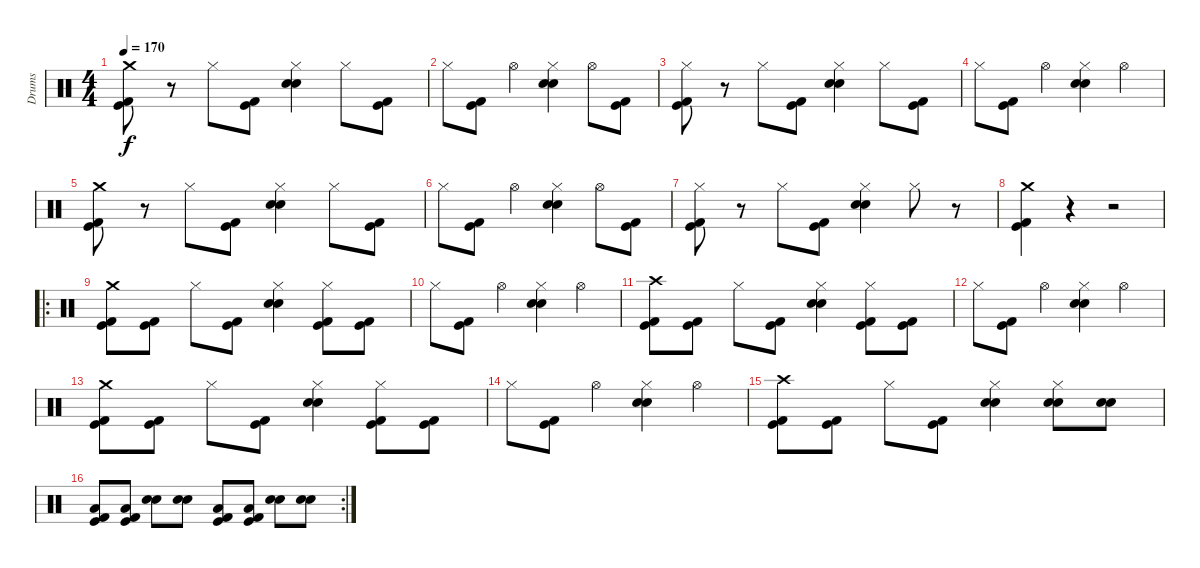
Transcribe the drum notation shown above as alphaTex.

\track ("Drums" "Drums") {instrument percussion}
\staff {score}
\articulation defaults
\ts (4 4)
\tempo 170
\clef neutral
\ks c
("Crash medium (hit)" "Kick (hit) 2" "Kick (hit)").8{dy f} r.8 "Hi-Hat (closed)".8 ("Kick (hit) 2" "Kick (hit)").8 ("Hi-Hat (closed)" "Electric Snare (hit)" "Snare (hit) 2").4 "Hi-Hat (closed)".8 ("Kick (hit) 2" "Kick (hit)").8 |
"Hi-Hat (closed)".8 ("Kick (hit) 2" "Kick (hit)").8 "Hi-Hat (open)".4 ("Hi-Hat (closed)" "Electric Snare (hit)" "Snare (hit) 2").4 "Hi-Hat (open)".8 ("Kick (hit) 2" "Kick (hit)").8 |
("Hi-Hat (closed)" "Kick (hit) 2" "Kick (hit)").8 r.8 "Hi-Hat (closed)".8 ("Kick (hit) 2" "Kick (hit)").8 ("Hi-Hat (closed)" "Electric Snare (hit)" "Snare (hit) 2").4 "Hi-Hat (closed)".8 ("Kick (hit) 2" "Kick (hit)").8 |
"Hi-Hat (closed)".8 ("Kick (hit) 2" "Kick (hit)").8 "Hi-Hat (open)".4 ("Hi-Hat (closed)" "Electric Snare (hit)" "Snare (hit) 2").4 "Hi-Hat (open)".4 |
("Crash medium (hit)" "Kick (hit) 2" "Kick (hit)").8 r.8 "Hi-Hat (closed)".8 ("Kick (hit) 2" "Kick (hit)").8 ("Hi-Hat (closed)" "Electric Snare (hit)" "Snare (hit) 2").4 "Hi-Hat (closed)".8 ("Kick (hit) 2" "Kick (hit)").8 |
"Hi-Hat (closed)".8 ("Kick (hit) 2" "Kick (hit)").8 "Hi-Hat (open)".4 ("Hi-Hat (closed)" "Electric Snare (hit)" "Snare (hit) 2").4 "Hi-Hat (open)".8 ("Kick (hit) 2" "Kick (hit)").8 |
("Hi-Hat (closed)" "Kick (hit) 2" "Kick (hit)").8 r.8 "Hi-Hat (closed)".8 ("Kick (hit) 2" "Kick (hit)").8 ("Hi-Hat (closed)" "Electric Snare (hit)" "Snare (hit) 2").4 "Hi-Hat (closed)".8 r.8 |
("Crash medium (hit)" "Kick (hit) 2" "Kick (hit)").4 r.4 r.2 |
\ro
("Crash medium (hit)" "Kick (hit) 2" "Kick (hit)").8 ("Kick (hit) 2" "Kick (hit)").8 "Hi-Hat (closed)".8 ("Kick (hit) 2" "Kick (hit)").8 ("Hi-Hat (closed)" "Electric Snare (hit)" "Snare (hit) 2").4 ("Hi-Hat (closed)" "Kick (hit) 2" "Kick (hit)").8 ("Kick (hit) 2" "Kick (hit)").8 |
"Hi-Hat (closed)".8 ("Kick (hit) 2" "Kick (hit)").8 "Hi-Hat (open)".4 ("Hi-Hat (closed)" "Electric Snare (hit)" "Snare (hit) 2").4 "Hi-Hat (open)".4 |
("Crash high (hit)" "Kick (hit) 2" "Kick (hit)").8 ("Kick (hit) 2" "Kick (hit)").8 "Hi-Hat (closed)".8 ("Kick (hit) 2" "Kick (hit)").8 ("Hi-Hat (closed)" "Electric Snare (hit)" "Snare (hit) 2").4 ("Hi-Hat (closed)" "Kick (hit) 2" "Kick (hit)").8 ("Kick (hit) 2" "Kick (hit)").8 |
"Hi-Hat (closed)".8 ("Kick (hit) 2" "Kick (hit)").8 "Hi-Hat (open)".4 ("Hi-Hat (closed)" "Electric Snare (hit)" "Snare (hit) 2").4 "Hi-Hat (open)".4 |
("Crash medium (hit)" "Kick (hit) 2" "Kick (hit)").8 ("Kick (hit) 2" "Kick (hit)").8 "Hi-Hat (closed)".8 ("Kick (hit) 2" "Kick (hit)").8 ("Hi-Hat (closed)" "Electric Snare (hit)" "Snare (hit) 2").4 ("Hi-Hat (closed)" "Kick (hit) 2" "Kick (hit)").8 ("Kick (hit) 2" "Kick (hit)").8 |
"Hi-Hat (closed)".8 ("Kick (hit) 2" "Kick (hit)").8 "Hi-Hat (open)".4 ("Hi-Hat (closed)" "Electric Snare (hit)" "Snare (hit) 2").4 "Hi-Hat (open)".4 |
("Crash high (hit)" "Kick (hit) 2" "Kick (hit)").8 ("Kick (hit) 2" "Kick (hit)").8 "Hi-Hat (closed)".8 ("Kick (hit) 2" "Kick (hit)").8 ("Hi-Hat (closed)" "Electric Snare (hit)" "Snare (hit) 2").4 ("Hi-Hat (closed)" "Electric Snare (hit)" "Snare (hit) 2").8 ("Electric Snare (hit)" "Snare (hit) 2").8 |
\rc 2
("Low Tom (hit)" "Kick (hit) 2" "Kick (hit)").8 ("Low Tom (hit)" "Kick (hit) 2" "Kick (hit)").8 ("Electric Snare (hit)" "Snare (hit) 2").8 ("Electric Snare (hit)" "Snare (hit) 2").8 ("Low Tom (hit)" "Kick (hit) 2" "Kick (hit)").8 ("Low Tom (hit)" "Kick (hit) 2" "Kick (hit)").8 ("Electric Snare (hit)" "Snare (hit) 2").8 ("Electric Snare (hit)" "Snare (hit) 2").8
